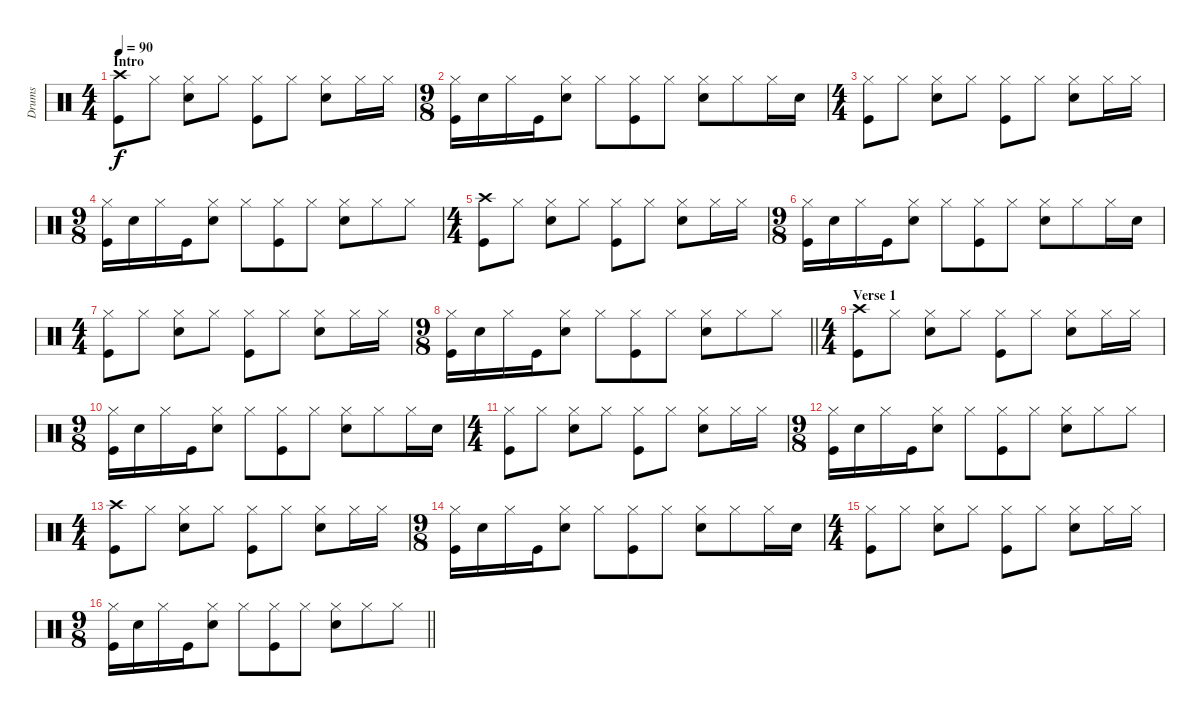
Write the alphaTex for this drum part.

\track ("Drums" "Drums") {instrument percussion}
\staff {score}
\articulation defaults
\ts (4 4)
\section ("" "Intro")
\tempo 90
\clef neutral
\ks c
("Crash high (hit)" "Kick (hit)").8{dy f} "Hi-Hat (closed)".8 ("Snare (hit) 2" "Hi-Hat (closed)").8 "Hi-Hat (closed)".8 ("Kick (hit)" "Hi-Hat (closed)").8 "Hi-Hat (closed)".8 ("Snare (hit) 2" "Hi-Hat (closed)").8 "Hi-Hat (closed)".16 "Hi-Hat (closed)".16 |
\ts (9 8)
("Kick (hit)" "Hi-Hat (closed)").16 "Snare (hit) 2".16 "Hi-Hat (closed)".16 "Kick (hit)".16 ("Snare (hit) 2" "Hi-Hat (closed)").8 "Hi-Hat (closed)".8 ("Kick (hit)" "Hi-Hat (closed)").8 "Hi-Hat (closed)".8 ("Snare (hit) 2" "Hi-Hat (closed)").8 "Hi-Hat (closed)".8 "Hi-Hat (closed)".16 "Snare (hit) 2".16 |
\ts (4 4)
("Kick (hit)" "Hi-Hat (closed)").8 "Hi-Hat (closed)".8 ("Snare (hit) 2" "Hi-Hat (closed)").8 "Hi-Hat (closed)".8 ("Kick (hit)" "Hi-Hat (closed)").8 "Hi-Hat (closed)".8 ("Snare (hit) 2" "Hi-Hat (closed)").8 "Hi-Hat (closed)".16 "Hi-Hat (closed)".16 |
\ts (9 8)
("Kick (hit)" "Hi-Hat (closed)").16 "Snare (hit) 2".16 "Hi-Hat (closed)".16 "Kick (hit)".16 ("Snare (hit) 2" "Hi-Hat (closed)").8 "Hi-Hat (closed)".8 ("Kick (hit)" "Hi-Hat (closed)").8 "Hi-Hat (closed)".8 ("Snare (hit) 2" "Hi-Hat (closed)").8 "Hi-Hat (closed)".8 "Hi-Hat (closed)".8 |
\ts (4 4)
("Crash high (hit)" "Kick (hit)").8 "Hi-Hat (closed)".8 ("Snare (hit) 2" "Hi-Hat (closed)").8 "Hi-Hat (closed)".8 ("Kick (hit)" "Hi-Hat (closed)").8 "Hi-Hat (closed)".8 ("Snare (hit) 2" "Hi-Hat (closed)").8 "Hi-Hat (closed)".16 "Hi-Hat (closed)".16 |
\ts (9 8)
("Kick (hit)" "Hi-Hat (closed)").16 "Snare (hit) 2".16 "Hi-Hat (closed)".16 "Kick (hit)".16 ("Snare (hit) 2" "Hi-Hat (closed)").8 "Hi-Hat (closed)".8 ("Kick (hit)" "Hi-Hat (closed)").8 "Hi-Hat (closed)".8 ("Snare (hit) 2" "Hi-Hat (closed)").8 "Hi-Hat (closed)".8 "Hi-Hat (closed)".16 "Snare (hit) 2".16 |
\ts (4 4)
("Kick (hit)" "Hi-Hat (closed)").8 "Hi-Hat (closed)".8 ("Snare (hit) 2" "Hi-Hat (closed)").8 "Hi-Hat (closed)".8 ("Kick (hit)" "Hi-Hat (closed)").8 "Hi-Hat (closed)".8 ("Snare (hit) 2" "Hi-Hat (closed)").8 "Hi-Hat (closed)".16 "Hi-Hat (closed)".16 |
\ts (9 8)
\barLineRight lightlight
("Kick (hit)" "Hi-Hat (closed)").16 "Snare (hit) 2".16 "Hi-Hat (closed)".16 "Kick (hit)".16 ("Snare (hit) 2" "Hi-Hat (closed)").8 "Hi-Hat (closed)".8 ("Kick (hit)" "Hi-Hat (closed)").8 "Hi-Hat (closed)".8 ("Snare (hit) 2" "Hi-Hat (closed)").8 "Hi-Hat (closed)".8 "Hi-Hat (closed)".8 |
\ts (4 4)
\section ("" "Verse 1")
("Crash high (hit)" "Kick (hit)").8 "Hi-Hat (closed)".8 ("Snare (hit) 2" "Hi-Hat (closed)").8 "Hi-Hat (closed)".8 ("Kick (hit)" "Hi-Hat (closed)").8 "Hi-Hat (closed)".8 ("Snare (hit) 2" "Hi-Hat (closed)").8 "Hi-Hat (closed)".16 "Hi-Hat (closed)".16 |
\ts (9 8)
("Kick (hit)" "Hi-Hat (closed)").16 "Snare (hit) 2".16 "Hi-Hat (closed)".16 "Kick (hit)".16 ("Snare (hit) 2" "Hi-Hat (closed)").8 "Hi-Hat (closed)".8 ("Kick (hit)" "Hi-Hat (closed)").8 "Hi-Hat (closed)".8 ("Snare (hit) 2" "Hi-Hat (closed)").8 "Hi-Hat (closed)".8 "Hi-Hat (closed)".16 "Snare (hit) 2".16 |
\ts (4 4)
("Kick (hit)" "Hi-Hat (closed)").8 "Hi-Hat (closed)".8 ("Snare (hit) 2" "Hi-Hat (closed)").8 "Hi-Hat (closed)".8 ("Kick (hit)" "Hi-Hat (closed)").8 "Hi-Hat (closed)".8 ("Snare (hit) 2" "Hi-Hat (closed)").8 "Hi-Hat (closed)".16 "Hi-Hat (closed)".16 |
\ts (9 8)
("Kick (hit)" "Hi-Hat (closed)").16 "Snare (hit) 2".16 "Hi-Hat (closed)".16 "Kick (hit)".16 ("Snare (hit) 2" "Hi-Hat (closed)").8 "Hi-Hat (closed)".8 ("Kick (hit)" "Hi-Hat (closed)").8 "Hi-Hat (closed)".8 ("Snare (hit) 2" "Hi-Hat (closed)").8 "Hi-Hat (closed)".8 "Hi-Hat (closed)".8 |
\ts (4 4)
("Crash high (hit)" "Kick (hit)").8 "Hi-Hat (closed)".8 ("Snare (hit) 2" "Hi-Hat (closed)").8 "Hi-Hat (closed)".8 ("Kick (hit)" "Hi-Hat (closed)").8 "Hi-Hat (closed)".8 ("Snare (hit) 2" "Hi-Hat (closed)").8 "Hi-Hat (closed)".16 "Hi-Hat (closed)".16 |
\ts (9 8)
("Kick (hit)" "Hi-Hat (closed)").16 "Snare (hit) 2".16 "Hi-Hat (closed)".16 "Kick (hit)".16 ("Snare (hit) 2" "Hi-Hat (closed)").8 "Hi-Hat (closed)".8 ("Kick (hit)" "Hi-Hat (closed)").8 "Hi-Hat (closed)".8 ("Snare (hit) 2" "Hi-Hat (closed)").8 "Hi-Hat (closed)".8 "Hi-Hat (closed)".16 "Snare (hit) 2".16 |
\ts (4 4)
("Kick (hit)" "Hi-Hat (closed)").8 "Hi-Hat (closed)".8 ("Snare (hit) 2" "Hi-Hat (closed)").8 "Hi-Hat (closed)".8 ("Kick (hit)" "Hi-Hat (closed)").8 "Hi-Hat (closed)".8 ("Snare (hit) 2" "Hi-Hat (closed)").8 "Hi-Hat (closed)".16 "Hi-Hat (closed)".16 |
\ts (9 8)
\barLineRight lightlight
("Kick (hit)" "Hi-Hat (closed)").16 "Snare (hit) 2".16 "Hi-Hat (closed)".16 "Kick (hit)".16 ("Snare (hit) 2" "Hi-Hat (closed)").8 "Hi-Hat (closed)".8 ("Kick (hit)" "Hi-Hat (closed)").8 "Hi-Hat (closed)".8 ("Snare (hit) 2" "Hi-Hat (closed)").8 "Hi-Hat (closed)".8 "Hi-Hat (closed)".8
